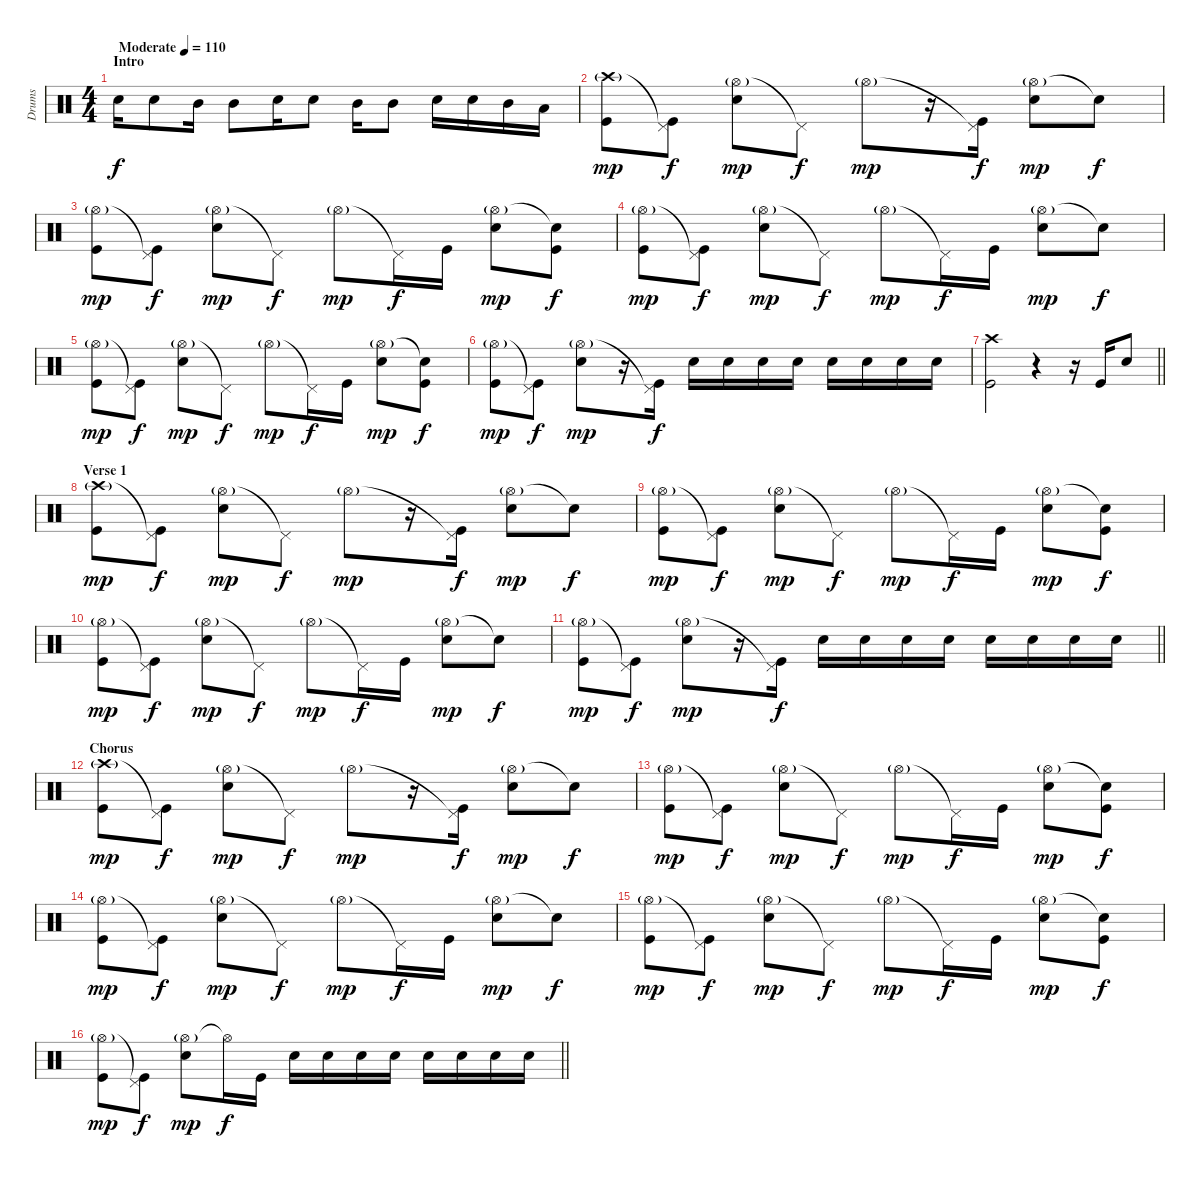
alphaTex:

\track ("Drums" "Drums") {instrument percussion}
\staff {score}
\articulation defaults
\ts (4 4)
\section ("" "Intro")
\tempo (110 "Moderate")
\clef neutral
\ks c "Electric Snare (hit)".16{dy f} "Electric Snare (hit)".8 "Mid Tom (hit)".16 "Mid Tom (hit)".8 "Electric Snare (hit)".16 "Electric Snare (hit)".8 "Mid Tom (hit)".16 "Mid Tom (hit)".8 "Electric Snare (hit)".16 "Electric Snare (hit)".16 "Mid Tom (hit)".16 "Low Tom (hit)".16
|
("Crash high (hit)"{g} "Kick (hit)").8{dy mp} ("Pedal Hi-Hat (hit)"{t} "Kick (hit)").8{dy f} ("Hi-Hat (open)"{g} "Electric Snare (hit)").8{dy mp} "Pedal Hi-Hat (hit)"{t}.8{dy f} "Hi-Hat (open)"{g}.8{dy mp} r.16 ("Pedal Hi-Hat (hit)"{t} "Kick (hit)").16{dy f} ("Hi-Hat (open)"{g} "Electric Snare (hit)").8{dy mp} "Snare (hit)"{t}.8{dy f} |
("Hi-Hat (open)"{g} "Kick (hit)").8{dy mp} ("Pedal Hi-Hat (hit)"{t} "Kick (hit)").8{dy f} ("Hi-Hat (open)"{g} "Electric Snare (hit)").8{dy mp} "Pedal Hi-Hat (hit)"{t}.8{dy f} "Hi-Hat (open)"{g}.8{dy mp} "Pedal Hi-Hat (hit)"{t}.16{dy f} "Kick (hit)".16 ("Hi-Hat (open)"{g} "Electric Snare (hit)").8{dy mp} ("Snare (hit)"{t} "Kick (hit)").8{dy f} |
("Hi-Hat (open)"{g} "Kick (hit)").8{dy mp} ("Pedal Hi-Hat (hit)"{t} "Kick (hit)").8{dy f} ("Hi-Hat (open)"{g} "Electric Snare (hit)").8{dy mp} "Pedal Hi-Hat (hit)"{t}.8{dy f} "Hi-Hat (open)"{g}.8{dy mp} "Pedal Hi-Hat (hit)"{t}.16{dy f} "Kick (hit)".16 ("Hi-Hat (open)"{g} "Electric Snare (hit)").8{dy mp} "Snare (hit)"{t}.8{dy f} |
("Hi-Hat (open)"{g} "Kick (hit)").8{dy mp} ("Pedal Hi-Hat (hit)"{t} "Kick (hit)").8{dy f} ("Hi-Hat (open)"{g} "Electric Snare (hit)").8{dy mp} "Pedal Hi-Hat (hit)"{t}.8{dy f} "Hi-Hat (open)"{g}.8{dy mp} "Pedal Hi-Hat (hit)"{t}.16{dy f} "Kick (hit)".16 ("Hi-Hat (open)"{g} "Electric Snare (hit)").8{dy mp} ("Snare (hit)"{t} "Kick (hit)").8{dy f} |
("Hi-Hat (open)"{g} "Kick (hit)").8{dy mp} ("Pedal Hi-Hat (hit)"{t} "Kick (hit)").8{dy f} ("Hi-Hat (open)"{g} "Electric Snare (hit)").8{dy mp} r.16 ("Pedal Hi-Hat (hit)"{t} "Kick (hit)").16{dy f} "Electric Snare (hit)".16 "Electric Snare (hit)".16 "Electric Snare (hit)".16 "Electric Snare (hit)".16 "Electric Snare (hit)".16 "Electric Snare (hit)".16 "Electric Snare (hit)".16 "Electric Snare (hit)".16 |
\barLineRight lightlight
("Crash high (hit)" "Kick (hit)").2 r.4 r.16 "Kick (hit)".16 "Electric Snare (hit)".8 |
\section ("" "Verse 1")
("Crash high (hit)"{g} "Kick (hit)").8{dy mp} ("Pedal Hi-Hat (hit)"{t} "Kick (hit)").8{dy f} ("Hi-Hat (open)"{g} "Electric Snare (hit)").8{dy mp} "Pedal Hi-Hat (hit)"{t}.8{dy f} "Hi-Hat (open)"{g}.8{dy mp} r.16 ("Pedal Hi-Hat (hit)"{t} "Kick (hit)").16{dy f} ("Hi-Hat (open)"{g} "Electric Snare (hit)").8{dy mp} "Snare (hit)"{t}.8{dy f} |
("Hi-Hat (open)"{g} "Kick (hit)").8{dy mp} ("Pedal Hi-Hat (hit)"{t} "Kick (hit)").8{dy f} ("Hi-Hat (open)"{g} "Electric Snare (hit)").8{dy mp} "Pedal Hi-Hat (hit)"{t}.8{dy f} "Hi-Hat (open)"{g}.8{dy mp} "Pedal Hi-Hat (hit)"{t}.16{dy f} "Kick (hit)".16 ("Hi-Hat (open)"{g} "Electric Snare (hit)").8{dy mp} ("Snare (hit)"{t} "Kick (hit)").8{dy f} |
("Hi-Hat (open)"{g} "Kick (hit)").8{dy mp} ("Pedal Hi-Hat (hit)"{t} "Kick (hit)").8{dy f} ("Hi-Hat (open)"{g} "Electric Snare (hit)").8{dy mp} "Pedal Hi-Hat (hit)"{t}.8{dy f} "Hi-Hat (open)"{g}.8{dy mp} "Pedal Hi-Hat (hit)"{t}.16{dy f} "Kick (hit)".16 ("Hi-Hat (open)"{g} "Electric Snare (hit)").8{dy mp} "Snare (hit)"{t}.8{dy f} |
\barLineRight lightlight
("Hi-Hat (open)"{g} "Kick (hit)").8{dy mp} ("Pedal Hi-Hat (hit)"{t} "Kick (hit)").8{dy f} ("Hi-Hat (open)"{g} "Electric Snare (hit)").8{dy mp} r.16 ("Pedal Hi-Hat (hit)"{t} "Kick (hit)").16{dy f} "Electric Snare (hit)".16 "Electric Snare (hit)".16 "Electric Snare (hit)".16 "Electric Snare (hit)".16 "Electric Snare (hit)".16 "Electric Snare (hit)".16 "Electric Snare (hit)".16 "Electric Snare (hit)".16 |
\section ("" "Chorus")
("Crash high (hit)"{g} "Kick (hit)").8{dy mp} ("Pedal Hi-Hat (hit)"{t} "Kick (hit)").8{dy f} ("Hi-Hat (open)"{g} "Electric Snare (hit)").8{dy mp} "Pedal Hi-Hat (hit)"{t}.8{dy f} "Hi-Hat (open)"{g}.8{dy mp} r.16 ("Pedal Hi-Hat (hit)"{t} "Kick (hit)").16{dy f} ("Hi-Hat (open)"{g} "Electric Snare (hit)").8{dy mp} "Snare (hit)"{t}.8{dy f} |
("Hi-Hat (open)"{g} "Kick (hit)").8{dy mp} ("Pedal Hi-Hat (hit)"{t} "Kick (hit)").8{dy f} ("Hi-Hat (open)"{g} "Electric Snare (hit)").8{dy mp} "Pedal Hi-Hat (hit)"{t}.8{dy f} "Hi-Hat (open)"{g}.8{dy mp} "Pedal Hi-Hat (hit)"{t}.16{dy f} "Kick (hit)".16 ("Hi-Hat (open)"{g} "Electric Snare (hit)").8{dy mp} ("Snare (hit)"{t} "Kick (hit)").8{dy f} |
("Hi-Hat (open)"{g} "Kick (hit)").8{dy mp} ("Pedal Hi-Hat (hit)"{t} "Kick (hit)").8{dy f} ("Hi-Hat (open)"{g} "Electric Snare (hit)").8{dy mp} "Pedal Hi-Hat (hit)"{t}.8{dy f} "Hi-Hat (open)"{g}.8{dy mp} "Pedal Hi-Hat (hit)"{t}.16{dy f} "Kick (hit)".16 ("Hi-Hat (open)"{g} "Electric Snare (hit)").8{dy mp} "Snare (hit)"{t}.8{dy f} |
("Hi-Hat (open)"{g} "Kick (hit)").8{dy mp} ("Pedal Hi-Hat (hit)"{t} "Kick (hit)").8{dy f} ("Hi-Hat (open)"{g} "Electric Snare (hit)").8{dy mp} "Pedal Hi-Hat (hit)"{t}.8{dy f} "Hi-Hat (open)"{g}.8{dy mp} "Pedal Hi-Hat (hit)"{t}.16{dy f} "Kick (hit)".16 ("Hi-Hat (open)"{g} "Electric Snare (hit)").8{dy mp} ("Snare (hit)"{t} "Kick (hit)").8{dy f} |
\barLineRight lightlight
("Hi-Hat (open)"{g} "Kick (hit)").8{dy mp} ("Pedal Hi-Hat (hit)"{t} "Kick (hit)").8{dy f} ("Hi-Hat (open)"{g} "Electric Snare (hit)").8{dy mp} "Hi-Hat (open)"{t}.16{dy f} "Kick (hit)".16 "Electric Snare (hit)".16 "Electric Snare (hit)".16 "Electric Snare (hit)".16 "Electric Snare (hit)".16 "Electric Snare (hit)".16 "Electric Snare (hit)".16 "Electric Snare (hit)".16 "Electric Snare (hit)".16
